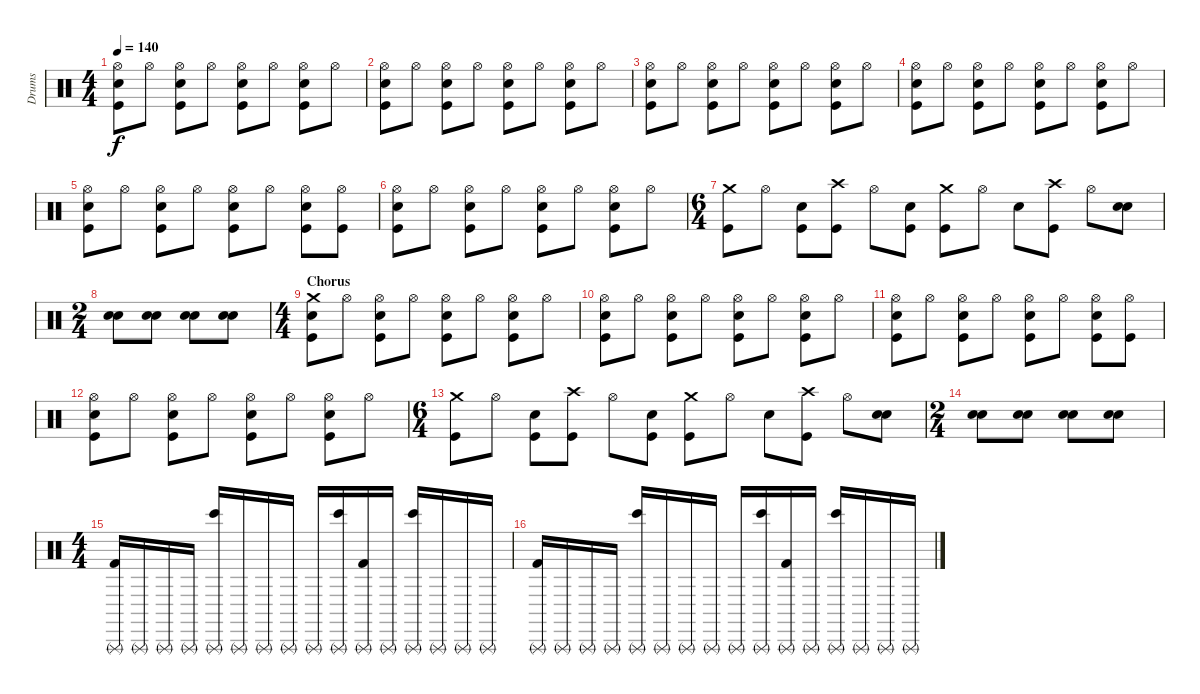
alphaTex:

\track ("Drums" "Drums") {instrument percussion}
\staff {score}
\articulation defaults
\ts (4 4)
\tempo 140
\clef neutral
\ks c
("Hi-Hat (open)" "Snare (hit) 2" "Kick (hit)").8{dy f} "Hi-Hat (open)".8 ("Hi-Hat (open)" "Snare (hit) 2" "Kick (hit)").8 "Hi-Hat (open)".8 ("Hi-Hat (open)" "Snare (hit) 2" "Kick (hit)").8 "Hi-Hat (open)".8 ("Hi-Hat (open)" "Snare (hit) 2" "Kick (hit)").8 "Hi-Hat (open)".8 |
("Hi-Hat (open)" "Snare (hit) 2" "Kick (hit)").8 "Hi-Hat (open)".8 ("Hi-Hat (open)" "Snare (hit) 2" "Kick (hit)").8 "Hi-Hat (open)".8 ("Hi-Hat (open)" "Snare (hit) 2" "Kick (hit)").8 "Hi-Hat (open)".8 ("Hi-Hat (open)" "Snare (hit) 2" "Kick (hit)").8 "Hi-Hat (open)".8 |
("Hi-Hat (open)" "Snare (hit) 2" "Kick (hit)").8 "Hi-Hat (open)".8 ("Hi-Hat (open)" "Snare (hit) 2" "Kick (hit)").8 "Hi-Hat (open)".8 ("Hi-Hat (open)" "Snare (hit) 2" "Kick (hit)").8 "Hi-Hat (open)".8 ("Hi-Hat (open)" "Snare (hit) 2" "Kick (hit)").8 "Hi-Hat (open)".8 |
("Hi-Hat (open)" "Snare (hit) 2" "Kick (hit)").8 "Hi-Hat (open)".8 ("Hi-Hat (open)" "Snare (hit) 2" "Kick (hit)").8 "Hi-Hat (open)".8 ("Hi-Hat (open)" "Snare (hit) 2" "Kick (hit)").8 "Hi-Hat (open)".8 ("Hi-Hat (open)" "Snare (hit) 2" "Kick (hit)").8 "Hi-Hat (open)".8 |
("Hi-Hat (open)" "Snare (hit) 2" "Kick (hit)").8 "Hi-Hat (open)".8 ("Hi-Hat (open)" "Snare (hit) 2" "Kick (hit)").8 "Hi-Hat (open)".8 ("Hi-Hat (open)" "Snare (hit) 2" "Kick (hit)").8 "Hi-Hat (open)".8 ("Hi-Hat (open)" "Snare (hit) 2" "Kick (hit)").8 ("Hi-Hat (open)" "Kick (hit)").8 |
("Hi-Hat (open)" "Snare (hit) 2" "Kick (hit)").8 "Hi-Hat (open)".8 ("Hi-Hat (open)" "Snare (hit) 2" "Kick (hit)").8 "Hi-Hat (open)".8 ("Hi-Hat (open)" "Snare (hit) 2" "Kick (hit)").8 "Hi-Hat (open)".8 ("Hi-Hat (open)" "Snare (hit) 2" "Kick (hit)").8 "Hi-Hat (open)".8 |
\ts (6 4)
("Crash medium (hit)" "Kick (hit)").8 "Hi-Hat (open)".8 ("Snare (hit) 2" "Kick (hit)").8 ("Crash high (hit)" "Kick (hit)").8 "Hi-Hat (open)".8 ("Snare (hit) 2" "Kick (hit)").8 ("Crash medium (hit)" "Kick (hit)").8 "Hi-Hat (open)".8 "Snare (hit) 2".8 ("Crash high (hit)" "Kick (hit)").8 "Hi-Hat (open)".8 ("Snare (hit) 2" "Snare (hit) 2").8 |
\ts (2 4)
("Snare (hit) 2" "Snare (hit) 2").8 ("Snare (hit) 2" "Snare (hit) 2").8 ("Snare (hit) 2" "Snare (hit) 2").8 ("Snare (hit) 2" "Snare (hit) 2").8 |
\ts (4 4)
\section ("" "Chorus")
("Crash medium (hit)" "Snare (hit) 2" "Kick (hit)").8 "Hi-Hat (open)".8 ("Hi-Hat (open)" "Snare (hit) 2" "Kick (hit)").8 "Hi-Hat (open)".8 ("Hi-Hat (open)" "Snare (hit) 2" "Kick (hit)").8 "Hi-Hat (open)".8 ("Hi-Hat (open)" "Snare (hit) 2" "Kick (hit)").8 "Hi-Hat (open)".8 |
("Hi-Hat (open)" "Snare (hit) 2" "Kick (hit)").8 "Hi-Hat (open)".8 ("Hi-Hat (open)" "Snare (hit) 2" "Kick (hit)").8 "Hi-Hat (open)".8 ("Hi-Hat (open)" "Snare (hit) 2" "Kick (hit)").8 "Hi-Hat (open)".8 ("Hi-Hat (open)" "Snare (hit) 2" "Kick (hit)").8 "Hi-Hat (open)".8 |
("Hi-Hat (open)" "Snare (hit) 2" "Kick (hit)").8 "Hi-Hat (open)".8 ("Hi-Hat (open)" "Snare (hit) 2" "Kick (hit)").8 "Hi-Hat (open)".8 ("Hi-Hat (open)" "Snare (hit) 2" "Kick (hit)").8 "Hi-Hat (open)".8 ("Hi-Hat (open)" "Snare (hit) 2" "Kick (hit)").8 ("Hi-Hat (open)" "Kick (hit)").8 |
("Hi-Hat (open)" "Snare (hit) 2" "Kick (hit)").8 "Hi-Hat (open)".8 ("Hi-Hat (open)" "Snare (hit) 2" "Kick (hit)").8 "Hi-Hat (open)".8 ("Hi-Hat (open)" "Snare (hit) 2" "Kick (hit)").8 "Hi-Hat (open)".8 ("Hi-Hat (open)" "Snare (hit) 2" "Kick (hit)").8 "Hi-Hat (open)".8 |
\ts (6 4)
("Crash medium (hit)" "Kick (hit)").8 "Hi-Hat (open)".8 ("Snare (hit) 2" "Kick (hit)").8 ("Crash high (hit)" "Kick (hit)").8 "Hi-Hat (open)".8 ("Snare (hit) 2" "Kick (hit)").8 ("Crash medium (hit)" "Kick (hit)").8 "Hi-Hat (open)".8 "Snare (hit) 2".8 ("Crash high (hit)" "Kick (hit)").8 "Hi-Hat (open)".8 ("Snare (hit) 2" "Snare (hit) 2").8 |
\ts (2 4)
("Snare (hit) 2" "Snare (hit) 2").8 ("Snare (hit) 2" "Snare (hit) 2").8 ("Snare (hit) 2" "Snare (hit) 2").8 ("Snare (hit) 2" "Snare (hit) 2").8 |
\ts (4 4)
("Triangle (rnute)" "Kick (hit) 2").16 "Triangle (rnute)".16 "Triangle (rnute)".16 "Triangle (rnute)".16 ("Triangle (rnute)" "Bongo High (hit)").16 "Triangle (rnute)".16 "Triangle (rnute)".16 "Triangle (rnute)".16 "Triangle (rnute)".16 ("Triangle (rnute)" "Bongo High (hit)").16 ("Triangle (rnute)" "Kick (hit) 2").16 "Triangle (rnute)".16 ("Triangle (rnute)" "Bongo High (hit)").16 "Triangle (rnute)".16 "Triangle (rnute)".16 "Triangle (rnute)".16 |
("Triangle (rnute)" "Kick (hit) 2").16 "Triangle (rnute)".16 "Triangle (rnute)".16 "Triangle (rnute)".16 ("Triangle (rnute)" "Bongo High (hit)").16 "Triangle (rnute)".16 "Triangle (rnute)".16 "Triangle (rnute)".16 "Triangle (rnute)".16 ("Triangle (rnute)" "Bongo High (hit)").16 ("Triangle (rnute)" "Kick (hit) 2").16 "Triangle (rnute)".16 ("Triangle (rnute)" "Bongo High (hit)").16 "Triangle (rnute)".16 "Triangle (rnute)".16 "Triangle (rnute)".16
